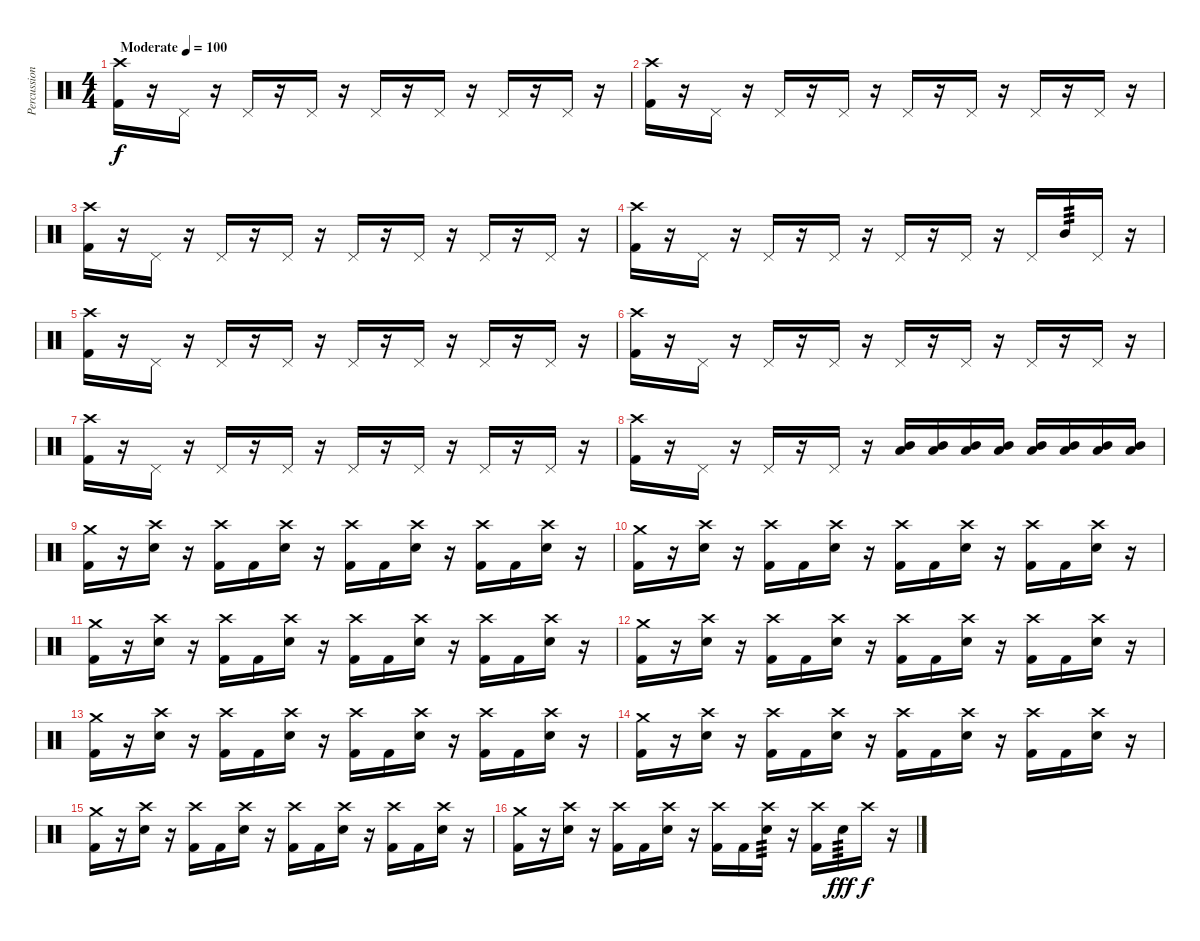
\track ("Percussion" "Percussion") {instrument percussion}
\staff {score}
\articulation defaults
\ts (4 4)
\tempo (100 "Moderate")
\clef neutral
\ks c
("Crash high (hit)" "Kick (hit) 2").16{dy f} r.16 "Pedal Hi-Hat (hit)".16 r.16 "Pedal Hi-Hat (hit)".16 r.16 "Pedal Hi-Hat (hit)".16 r.16 "Pedal Hi-Hat (hit)".16 r.16 "Pedal Hi-Hat (hit)".16 r.16 "Pedal Hi-Hat (hit)".16 r.16 "Pedal Hi-Hat (hit)".16 r.16 |
("Crash high (hit)" "Kick (hit) 2").16 r.16 "Pedal Hi-Hat (hit)".16 r.16 "Pedal Hi-Hat (hit)".16 r.16 "Pedal Hi-Hat (hit)".16 r.16 "Pedal Hi-Hat (hit)".16 r.16 "Pedal Hi-Hat (hit)".16 r.16 "Pedal Hi-Hat (hit)".16 r.16 "Pedal Hi-Hat (hit)".16 r.16 |
("Crash high (hit)" "Kick (hit) 2").16 r.16 "Pedal Hi-Hat (hit)".16 r.16 "Pedal Hi-Hat (hit)".16 r.16 "Pedal Hi-Hat (hit)".16 r.16 "Pedal Hi-Hat (hit)".16 r.16 "Pedal Hi-Hat (hit)".16 r.16 "Pedal Hi-Hat (hit)".16 r.16 "Pedal Hi-Hat (hit)".16 r.16 |
("Crash high (hit)" "Kick (hit) 2").16 r.16 "Pedal Hi-Hat (hit)".16 r.16 "Pedal Hi-Hat (hit)".16 r.16 "Pedal Hi-Hat (hit)".16 r.16 "Pedal Hi-Hat (hit)".16 r.16 "Pedal Hi-Hat (hit)".16 r.16 "Pedal Hi-Hat (hit)".16 "Mid Tom (hit)".16{tp 3} "Pedal Hi-Hat (hit)".16 r.16 |
("Crash high (hit)" "Kick (hit) 2").16 r.16 "Pedal Hi-Hat (hit)".16 r.16 "Pedal Hi-Hat (hit)".16 r.16 "Pedal Hi-Hat (hit)".16 r.16 "Pedal Hi-Hat (hit)".16 r.16 "Pedal Hi-Hat (hit)".16 r.16 "Pedal Hi-Hat (hit)".16 r.16 "Pedal Hi-Hat (hit)".16 r.16 |
("Crash high (hit)" "Kick (hit) 2").16 r.16 "Pedal Hi-Hat (hit)".16 r.16 "Pedal Hi-Hat (hit)".16 r.16 "Pedal Hi-Hat (hit)".16 r.16 "Pedal Hi-Hat (hit)".16 r.16 "Pedal Hi-Hat (hit)".16 r.16 "Pedal Hi-Hat (hit)".16 r.16 "Pedal Hi-Hat (hit)".16 r.16 |
("Crash high (hit)" "Kick (hit) 2").16 r.16 "Pedal Hi-Hat (hit)".16 r.16 "Pedal Hi-Hat (hit)".16 r.16 "Pedal Hi-Hat (hit)".16 r.16 "Pedal Hi-Hat (hit)".16 r.16 "Pedal Hi-Hat (hit)".16 r.16 "Pedal Hi-Hat (hit)".16 r.16 "Pedal Hi-Hat (hit)".16 r.16 |
("Crash high (hit)" "Kick (hit) 2").16 r.16 "Pedal Hi-Hat (hit)".16 r.16 "Pedal Hi-Hat (hit)".16 r.16 "Pedal Hi-Hat (hit)".16 r.16 ("Mid Tom (hit)" "Low Floor Tom (hit)").16 ("Mid Tom (hit)" "Low Floor Tom (hit)").16 ("Mid Tom (hit)" "Low Floor Tom (hit)").16 ("Mid Tom (hit)" "Low Floor Tom (hit)").16 ("Mid Tom (hit)" "Low Floor Tom (hit)").16 ("Mid Tom (hit)" "Low Floor Tom (hit)").16 ("Mid Tom (hit)" "Low Floor Tom (hit)").16 ("Mid Tom (hit)" "Low Floor Tom (hit)").16 |
("Crash medium (hit)" "Kick (hit) 2").16 r.16 ("Crash high (hit)" "Electric Snare (hit)").16 r.16 ("Crash high (hit)" "Kick (hit) 2").16 "Kick (hit) 2".16 ("Crash high (hit)" "Electric Snare (hit)").16 r.16 ("Crash high (hit)" "Kick (hit) 2").16 "Kick (hit) 2".16 ("Crash high (hit)" "Electric Snare (hit)").16 r.16 ("Crash high (hit)" "Kick (hit) 2").16 "Kick (hit) 2".16 ("Crash high (hit)" "Electric Snare (hit)").16 r.16 |
("Crash medium (hit)" "Kick (hit) 2").16 r.16 ("Crash high (hit)" "Electric Snare (hit)").16 r.16 ("Crash high (hit)" "Kick (hit) 2").16 "Kick (hit) 2".16 ("Crash high (hit)" "Electric Snare (hit)").16 r.16 ("Crash high (hit)" "Kick (hit) 2").16 "Kick (hit) 2".16 ("Crash high (hit)" "Electric Snare (hit)").16 r.16 ("Crash high (hit)" "Kick (hit) 2").16 "Kick (hit) 2".16 ("Crash high (hit)" "Electric Snare (hit)").16 r.16 |
("Crash medium (hit)" "Kick (hit) 2").16 r.16 ("Crash high (hit)" "Electric Snare (hit)").16 r.16 ("Crash high (hit)" "Kick (hit) 2").16 "Kick (hit) 2".16 ("Crash high (hit)" "Electric Snare (hit)").16 r.16 ("Crash high (hit)" "Kick (hit) 2").16 "Kick (hit) 2".16 ("Crash high (hit)" "Electric Snare (hit)").16 r.16 ("Crash high (hit)" "Kick (hit) 2").16 "Kick (hit) 2".16 ("Crash high (hit)" "Electric Snare (hit)").16 r.16 |
("Crash medium (hit)" "Kick (hit) 2").16 r.16 ("Crash high (hit)" "Electric Snare (hit)").16 r.16 ("Crash high (hit)" "Kick (hit) 2").16 "Kick (hit) 2".16 ("Crash high (hit)" "Electric Snare (hit)").16 r.16 ("Crash high (hit)" "Kick (hit) 2").16 "Kick (hit) 2".16 ("Crash high (hit)" "Electric Snare (hit)").16 r.16 ("Crash high (hit)" "Kick (hit) 2").16 "Kick (hit) 2".16 ("Crash high (hit)" "Electric Snare (hit)").16 r.16 |
("Crash medium (hit)" "Kick (hit) 2").16 r.16 ("Crash high (hit)" "Electric Snare (hit)").16 r.16 ("Crash high (hit)" "Kick (hit) 2").16 "Kick (hit) 2".16 ("Crash high (hit)" "Electric Snare (hit)").16 r.16 ("Crash high (hit)" "Kick (hit) 2").16 "Kick (hit) 2".16 ("Crash high (hit)" "Electric Snare (hit)").16 r.16 ("Crash high (hit)" "Kick (hit) 2").16 "Kick (hit) 2".16 ("Crash high (hit)" "Electric Snare (hit)").16 r.16 |
("Crash medium (hit)" "Kick (hit) 2").16 r.16 ("Crash high (hit)" "Electric Snare (hit)").16 r.16 ("Crash high (hit)" "Kick (hit) 2").16 "Kick (hit) 2".16 ("Crash high (hit)" "Electric Snare (hit)").16 r.16 ("Crash high (hit)" "Kick (hit) 2").16 "Kick (hit) 2".16 ("Crash high (hit)" "Electric Snare (hit)").16 r.16 ("Crash high (hit)" "Kick (hit) 2").16 "Kick (hit) 2".16 ("Crash high (hit)" "Electric Snare (hit)").16 r.16 |
("Crash medium (hit)" "Kick (hit) 2").16 r.16 ("Crash high (hit)" "Electric Snare (hit)").16 r.16 ("Crash high (hit)" "Kick (hit) 2").16 "Kick (hit) 2".16 ("Crash high (hit)" "Electric Snare (hit)").16 r.16 ("Crash high (hit)" "Kick (hit) 2").16 "Kick (hit) 2".16 ("Crash high (hit)" "Electric Snare (hit)").16 r.16 ("Crash high (hit)" "Kick (hit) 2").16 "Kick (hit) 2".16 ("Crash high (hit)" "Electric Snare (hit)").16 r.16 |
("Crash medium (hit)" "Kick (hit) 2").16 r.16 ("Crash high (hit)" "Electric Snare (hit)").16 r.16 ("Crash high (hit)" "Kick (hit) 2").16 "Kick (hit) 2".16 ("Crash high (hit)" "Electric Snare (hit)").16 r.16 ("Crash high (hit)" "Kick (hit) 2").16 "Kick (hit) 2".16 ("Crash high (hit)" "Electric Snare (hit)").16{tp 3} r.16 ("Crash high (hit)" "Kick (hit) 2").16 "Electric Snare (hit)".16{tp 3 dy fff} "Crash high (hit)".16{dy f} r.16
